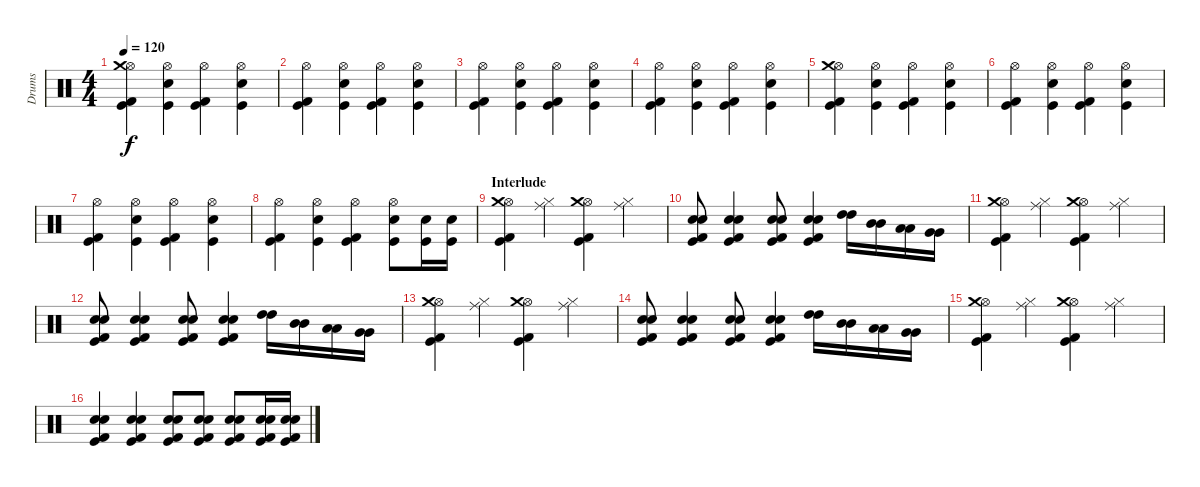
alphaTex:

\track ("Drums" "Drums") {instrument percussion}
\staff {score}
\articulation defaults
\ts (4 4)
\tempo 120
\clef neutral
\ks c
("Hi-Hat (open)" "Kick (hit)" "Kick (hit) 2" "Crash medium (hit)").4{dy f} ("Hi-Hat (open)" "Kick (hit)" "Snare (hit) 2").4 ("Hi-Hat (open)" "Kick (hit)" "Kick (hit) 2").4 ("Hi-Hat (open)" "Kick (hit)" "Snare (hit) 2").4 |
("Hi-Hat (open)" "Kick (hit)" "Kick (hit) 2").4 ("Hi-Hat (open)" "Kick (hit)" "Snare (hit) 2").4 ("Hi-Hat (open)" "Kick (hit)" "Kick (hit) 2").4 ("Hi-Hat (open)" "Kick (hit)" "Snare (hit) 2").4 |
("Hi-Hat (open)" "Kick (hit)" "Kick (hit) 2").4 ("Hi-Hat (open)" "Kick (hit)" "Snare (hit) 2").4 ("Hi-Hat (open)" "Kick (hit)" "Kick (hit) 2").4 ("Hi-Hat (open)" "Kick (hit)" "Snare (hit) 2").4 |
("Hi-Hat (open)" "Kick (hit)" "Kick (hit) 2").4 ("Hi-Hat (open)" "Kick (hit)" "Snare (hit) 2").4 ("Hi-Hat (open)" "Kick (hit)" "Kick (hit) 2").4 ("Hi-Hat (open)" "Kick (hit)" "Snare (hit) 2").4 |
("Hi-Hat (open)" "Kick (hit)" "Kick (hit) 2" "Crash medium (hit)").4 ("Hi-Hat (open)" "Kick (hit)" "Snare (hit) 2").4 ("Hi-Hat (open)" "Kick (hit)" "Kick (hit) 2").4 ("Hi-Hat (open)" "Kick (hit)" "Snare (hit) 2").4 |
("Hi-Hat (open)" "Kick (hit)" "Kick (hit) 2").4 ("Hi-Hat (open)" "Kick (hit)" "Snare (hit) 2").4 ("Hi-Hat (open)" "Kick (hit)" "Kick (hit) 2").4 ("Hi-Hat (open)" "Kick (hit)" "Snare (hit) 2").4 |
("Hi-Hat (open)" "Kick (hit)" "Kick (hit) 2").4 ("Hi-Hat (open)" "Kick (hit)" "Snare (hit) 2").4 ("Hi-Hat (open)" "Kick (hit)" "Kick (hit) 2").4 ("Hi-Hat (open)" "Kick (hit)" "Snare (hit) 2").4 |
("Hi-Hat (open)" "Kick (hit)" "Kick (hit) 2").4 ("Hi-Hat (open)" "Kick (hit)" "Snare (hit) 2").4 ("Hi-Hat (open)" "Kick (hit)" "Kick (hit) 2").4 ("Hi-Hat (open)" "Kick (hit)" "Snare (hit) 2").8 ("Kick (hit)" "Snare (hit) 2").16 ("Kick (hit)" "Snare (hit) 2").16 |
\section ("" "Interlude")
("Hi-Hat (open)" "Kick (hit)" "Kick (hit) 2" "Crash medium (hit)").4 ("Ride (middle)" "Hi-Hat (closed)").4 ("Hi-Hat (open)" "Kick (hit)" "Kick (hit) 2" "Crash medium (hit)").4 ("Ride (middle)" "Hi-Hat (closed)").4 |
("Kick (hit)" "Kick (hit) 2" "Snare (hit) 2" "Electric Snare (hit)").8 ("Kick (hit)" "Kick (hit) 2" "Snare (hit) 2" "Electric Snare (hit)").4 ("Kick (hit)" "Kick (hit) 2" "Snare (hit) 2" "Electric Snare (hit)").8 ("Kick (hit)" "Kick (hit) 2" "Snare (hit) 2" "Electric Snare (hit)").4 ("High Tom (hit)" "High Tom (hit)").16 ("Mid Tom (hit)" "Mid Tom (hit)").16 ("Low Tom (hit)" "Low Tom (hit)").16 ("Very Low Tom (hit)" "Very Low Tom (hit)").16 |
("Hi-Hat (open)" "Kick (hit)" "Kick (hit) 2" "Crash medium (hit)").4 ("Ride (middle)" "Hi-Hat (closed)").4 ("Hi-Hat (open)" "Kick (hit)" "Kick (hit) 2" "Crash medium (hit)").4 ("Ride (middle)" "Hi-Hat (closed)").4 |
("Kick (hit)" "Kick (hit) 2" "Snare (hit) 2" "Electric Snare (hit)").8 ("Kick (hit)" "Kick (hit) 2" "Snare (hit) 2" "Electric Snare (hit)").4 ("Kick (hit)" "Kick (hit) 2" "Snare (hit) 2" "Electric Snare (hit)").8 ("Kick (hit)" "Kick (hit) 2" "Snare (hit) 2" "Electric Snare (hit)").4 ("High Tom (hit)" "High Tom (hit)").16 ("Mid Tom (hit)" "Mid Tom (hit)").16 ("Low Tom (hit)" "Low Tom (hit)").16 ("Very Low Tom (hit)" "Very Low Tom (hit)").16 |
("Hi-Hat (open)" "Kick (hit)" "Kick (hit) 2" "Crash medium (hit)").4 ("Ride (middle)" "Hi-Hat (closed)").4 ("Hi-Hat (open)" "Kick (hit)" "Kick (hit) 2" "Crash medium (hit)").4 ("Ride (middle)" "Hi-Hat (closed)").4 |
("Kick (hit)" "Kick (hit) 2" "Snare (hit) 2" "Electric Snare (hit)").8 ("Kick (hit)" "Kick (hit) 2" "Snare (hit) 2" "Electric Snare (hit)").4 ("Kick (hit)" "Kick (hit) 2" "Snare (hit) 2" "Electric Snare (hit)").8 ("Kick (hit)" "Kick (hit) 2" "Snare (hit) 2" "Electric Snare (hit)").4 ("High Tom (hit)" "High Tom (hit)").16 ("Mid Tom (hit)" "Mid Tom (hit)").16 ("Low Tom (hit)" "Low Tom (hit)").16 ("Very Low Tom (hit)" "Very Low Tom (hit)").16 |
("Hi-Hat (open)" "Kick (hit)" "Kick (hit) 2" "Crash medium (hit)").4 ("Ride (middle)" "Hi-Hat (closed)").4 ("Hi-Hat (open)" "Kick (hit)" "Kick (hit) 2" "Crash medium (hit)").4 ("Ride (middle)" "Hi-Hat (closed)").4 |
("Kick (hit)" "Kick (hit) 2" "Snare (hit) 2" "Electric Snare (hit)").4 ("Kick (hit)" "Kick (hit) 2" "Snare (hit) 2" "Electric Snare (hit)").4 ("Kick (hit)" "Kick (hit) 2" "Snare (hit) 2" "Electric Snare (hit)").8 ("Kick (hit)" "Kick (hit) 2" "Snare (hit) 2" "Electric Snare (hit)").8 ("Kick (hit)" "Kick (hit) 2" "Snare (hit) 2" "Electric Snare (hit)").8 ("Kick (hit)" "Kick (hit) 2" "Snare (hit) 2" "Electric Snare (hit)").16 ("Kick (hit)" "Kick (hit) 2" "Snare (hit) 2" "Electric Snare (hit)").16
